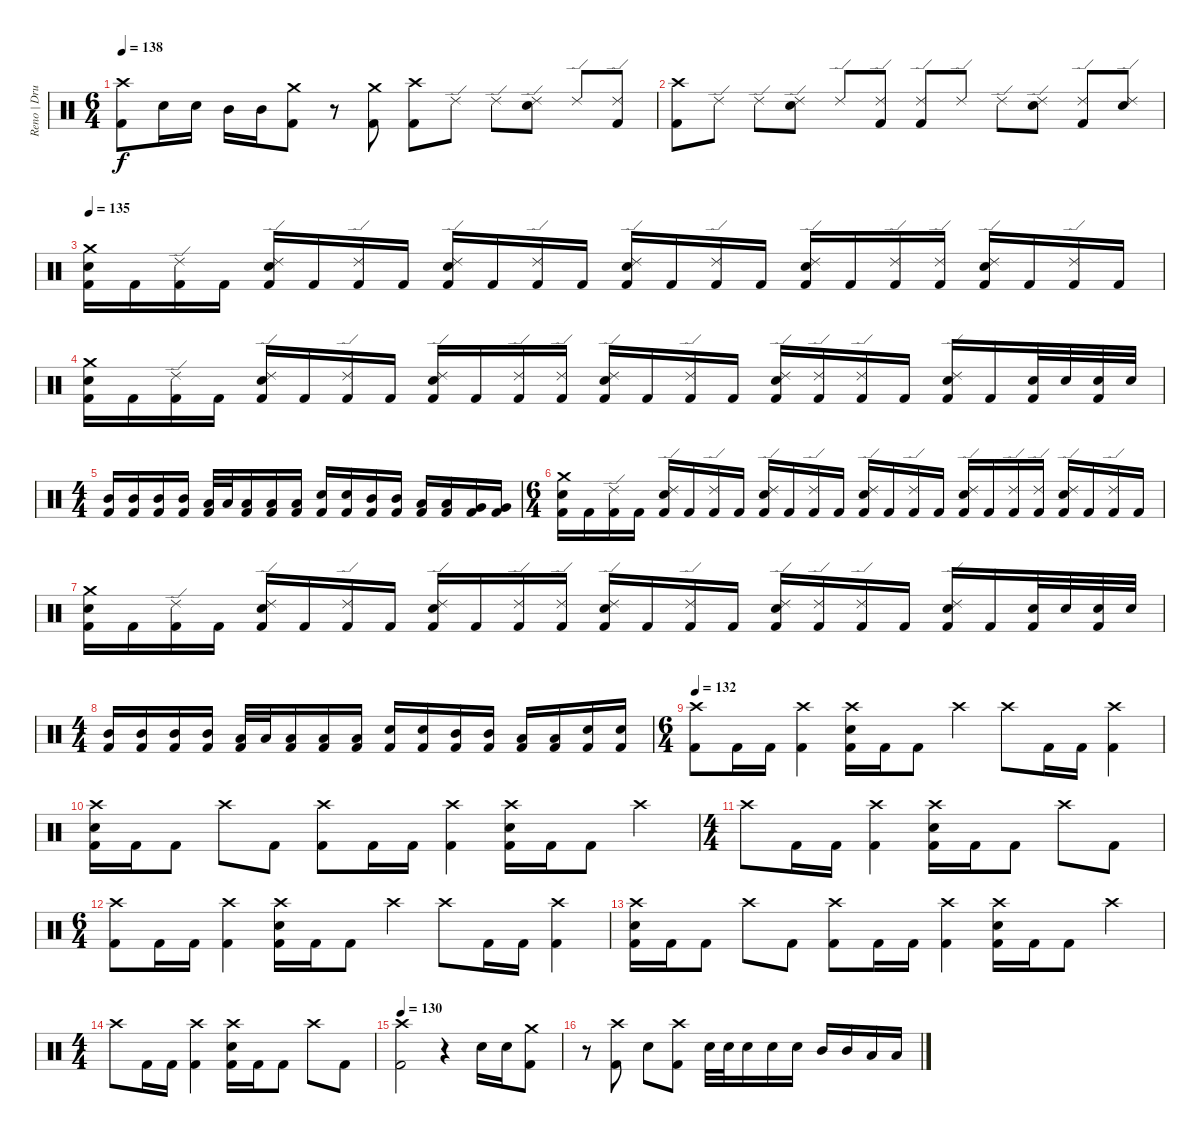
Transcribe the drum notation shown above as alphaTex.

\track ("Reno | Drums" "Reno | Dru") {instrument percussion}
\staff {score}
\articulation defaults
\ts (6 4)
\tempo 138
\clef neutral
\ks c
("Crash high (hit)" "Kick (hit) 2").8{dy f} "Electric Snare (hit)".16 "Electric Snare (hit)".16 "Mid Tom (hit)".16 "Mid Tom (hit)".16 ("Crash medium (hit)" "Kick (hit) 2").8 r.8 ("Crash medium (hit)" "Kick (hit) 2").8 ("Crash high (hit)" "Kick (hit) 2").8 "Ride (edge) 2".8 "Ride (edge) 2".8 ("Ride (edge) 2" "Electric Snare (hit)").8 "Ride (edge) 2".8 ("Ride (edge) 2" "Kick (hit) 2").8 |
("Crash high (hit)" "Kick (hit) 2").8 "Ride (edge) 2".8 "Ride (edge) 2".8 ("Ride (edge) 2" "Electric Snare (hit)").8 "Ride (edge) 2".8 ("Ride (edge) 2" "Kick (hit) 2").8 ("Ride (edge) 2" "Kick (hit) 2").8 "Ride (edge) 2".8 "Ride (edge) 2".8 ("Ride (edge) 2" "Electric Snare (hit)").8 ("Ride (edge) 2" "Kick (hit) 2").8 ("Ride (edge) 2" "Electric Snare (hit)").8 |
\tempo 135
("Crash medium (hit)" "Electric Snare (hit)" "Kick (hit) 2").16 "Kick (hit) 2".16 ("Ride (edge) 2" "Kick (hit) 2").16 "Kick (hit) 2".16 ("Ride (edge) 2" "Electric Snare (hit)" "Kick (hit) 2").16 "Kick (hit) 2".16 ("Ride (edge) 2" "Kick (hit) 2").16 "Kick (hit) 2".16 ("Ride (edge) 2" "Electric Snare (hit)" "Kick (hit) 2").16 "Kick (hit) 2".16 ("Ride (edge) 2" "Kick (hit) 2").16 "Kick (hit) 2".16 ("Ride (edge) 2" "Electric Snare (hit)" "Kick (hit) 2").16 "Kick (hit) 2".16 ("Ride (edge) 2" "Kick (hit) 2").16 "Kick (hit) 2".16 ("Ride (edge) 2" "Electric Snare (hit)" "Kick (hit) 2").16 "Kick (hit) 2".16 ("Ride (edge) 2" "Kick (hit) 2").16 ("Ride (edge) 2" "Kick (hit) 2").16 ("Ride (edge) 2" "Electric Snare (hit)" "Kick (hit) 2").16 "Kick (hit) 2".16 ("Ride (edge) 2" "Kick (hit) 2").16 "Kick (hit) 2".16 |
("Crash medium (hit)" "Electric Snare (hit)" "Kick (hit) 2").16 "Kick (hit) 2".16 ("Ride (edge) 2" "Kick (hit) 2").16 "Kick (hit) 2".16 ("Ride (edge) 2" "Electric Snare (hit)" "Kick (hit) 2").16 "Kick (hit) 2".16 ("Ride (edge) 2" "Kick (hit) 2").16 "Kick (hit) 2".16 ("Ride (edge) 2" "Electric Snare (hit)" "Kick (hit) 2").16 "Kick (hit) 2".16 ("Ride (edge) 2" "Kick (hit) 2").16 ("Ride (edge) 2" "Kick (hit) 2").16 ("Ride (edge) 2" "Electric Snare (hit)" "Kick (hit) 2").16 "Kick (hit) 2".16 ("Ride (edge) 2" "Kick (hit) 2").16 "Kick (hit) 2".16 ("Ride (edge) 2" "Electric Snare (hit)" "Kick (hit) 2").16 ("Ride (edge) 2" "Kick (hit) 2").16 ("Ride (edge) 2" "Kick (hit) 2").16 "Kick (hit) 2".16 ("Ride (edge) 2" "Electric Snare (hit)" "Kick (hit) 2").16 "Kick (hit) 2".16 ("Electric Snare (hit)" "Kick (hit) 2").32 "Electric Snare (hit)".32 ("Electric Snare (hit)" "Kick (hit) 2").32 "Electric Snare (hit)".32 |
\ts (4 4)
("Mid Tom (hit)" "Kick (hit) 2").16 ("Mid Tom (hit)" "Kick (hit) 2").16 ("Mid Tom (hit)" "Kick (hit) 2").16 ("Mid Tom (hit)" "Kick (hit) 2").16 ("Low Tom (hit)" "Kick (hit) 2").32 "Low Tom (hit)".32 ("Low Tom (hit)" "Kick (hit) 2").16 ("Low Tom (hit)" "Kick (hit) 2").16 ("Low Tom (hit)" "Kick (hit) 2").16 ("Electric Snare (hit)" "Kick (hit) 2").16 ("Electric Snare (hit)" "Kick (hit) 2").16 ("Mid Tom (hit)" "Kick (hit) 2").16 ("Mid Tom (hit)" "Kick (hit) 2").16 ("Low Tom (hit)" "Kick (hit) 2").16 ("Low Tom (hit)" "Kick (hit) 2").16 ("Very Low Tom (hit)" "Kick (hit) 2").16 ("Very Low Tom (hit)" "Kick (hit) 2").16 |
\ts (6 4)
("Crash medium (hit)" "Electric Snare (hit)" "Kick (hit) 2").16 "Kick (hit) 2".16 ("Ride (edge) 2" "Kick (hit) 2").16 "Kick (hit) 2".16 ("Ride (edge) 2" "Electric Snare (hit)" "Kick (hit) 2").16 "Kick (hit) 2".16 ("Ride (edge) 2" "Kick (hit) 2").16 "Kick (hit) 2".16 ("Ride (edge) 2" "Electric Snare (hit)" "Kick (hit) 2").16 "Kick (hit) 2".16 ("Ride (edge) 2" "Kick (hit) 2").16 "Kick (hit) 2".16 ("Ride (edge) 2" "Electric Snare (hit)" "Kick (hit) 2").16 "Kick (hit) 2".16 ("Ride (edge) 2" "Kick (hit) 2").16 "Kick (hit) 2".16 ("Ride (edge) 2" "Electric Snare (hit)" "Kick (hit) 2").16 "Kick (hit) 2".16 ("Ride (edge) 2" "Kick (hit) 2").16 ("Ride (edge) 2" "Kick (hit) 2").16 ("Ride (edge) 2" "Electric Snare (hit)" "Kick (hit) 2").16 "Kick (hit) 2".16 ("Ride (edge) 2" "Kick (hit) 2").16 "Kick (hit) 2".16 |
("Crash medium (hit)" "Electric Snare (hit)" "Kick (hit) 2").16 "Kick (hit) 2".16 ("Ride (edge) 2" "Kick (hit) 2").16 "Kick (hit) 2".16 ("Ride (edge) 2" "Electric Snare (hit)" "Kick (hit) 2").16 "Kick (hit) 2".16 ("Ride (edge) 2" "Kick (hit) 2").16 "Kick (hit) 2".16 ("Ride (edge) 2" "Electric Snare (hit)" "Kick (hit) 2").16 "Kick (hit) 2".16 ("Ride (edge) 2" "Kick (hit) 2").16 ("Ride (edge) 2" "Kick (hit) 2").16 ("Ride (edge) 2" "Electric Snare (hit)" "Kick (hit) 2").16 "Kick (hit) 2".16 ("Ride (edge) 2" "Kick (hit) 2").16 "Kick (hit) 2".16 ("Ride (edge) 2" "Electric Snare (hit)" "Kick (hit) 2").16 ("Ride (edge) 2" "Kick (hit) 2").16 ("Ride (edge) 2" "Kick (hit) 2").16 "Kick (hit) 2".16 ("Ride (edge) 2" "Electric Snare (hit)" "Kick (hit) 2").16 "Kick (hit) 2".16 ("Electric Snare (hit)" "Kick (hit) 2").32 "Electric Snare (hit)".32 ("Electric Snare (hit)" "Kick (hit) 2").32 "Electric Snare (hit)".32 |
\ts (4 4)
("Mid Tom (hit)" "Kick (hit) 2").16 ("Mid Tom (hit)" "Kick (hit) 2").16 ("Mid Tom (hit)" "Kick (hit) 2").16 ("Mid Tom (hit)" "Kick (hit) 2").16 ("Low Tom (hit)" "Kick (hit) 2").32 "Low Tom (hit)".32 ("Low Tom (hit)" "Kick (hit) 2").16 ("Low Tom (hit)" "Kick (hit) 2").16 ("Low Tom (hit)" "Kick (hit) 2").16 ("Electric Snare (hit)" "Kick (hit) 2").16 ("Electric Snare (hit)" "Kick (hit) 2").16 ("Mid Tom (hit)" "Kick (hit) 2").16 ("Mid Tom (hit)" "Kick (hit) 2").16 ("Low Tom (hit)" "Kick (hit) 2").16 ("Low Tom (hit)" "Kick (hit) 2").16 ("Electric Snare (hit)" "Kick (hit) 2").16 ("Electric Snare (hit)" "Kick (hit) 2").16 |
\ts (6 4)
\tempo 132
("Crash high (hit)" "Kick (hit) 2").8 "Kick (hit) 2".16 "Kick (hit) 2".16 ("Crash high (hit)" "Kick (hit) 2").4 ("Crash high (hit)" "Electric Snare (hit)" "Kick (hit) 2").16 "Kick (hit) 2".16 "Kick (hit) 2".8 "Crash high (hit)".4 "Crash high (hit)".8 "Kick (hit) 2".16 "Kick (hit) 2".16 ("Crash high (hit)" "Kick (hit) 2").4 |
("Crash high (hit)" "Electric Snare (hit)" "Kick (hit) 2").16 "Kick (hit) 2".16 "Kick (hit) 2".8 "Crash high (hit)".8 "Kick (hit) 2".8 ("Crash high (hit)" "Kick (hit) 2").8 "Kick (hit) 2".16 "Kick (hit) 2".16 ("Crash high (hit)" "Kick (hit) 2").4 ("Crash high (hit)" "Electric Snare (hit)" "Kick (hit) 2").16 "Kick (hit) 2".16 "Kick (hit) 2".8 "Crash high (hit)".4 |
\ts (4 4)
"Crash high (hit)".8 "Kick (hit) 2".16 "Kick (hit) 2".16 ("Crash high (hit)" "Kick (hit) 2").4 ("Crash high (hit)" "Electric Snare (hit)" "Kick (hit) 2").16 "Kick (hit) 2".16 "Kick (hit) 2".8 "Crash high (hit)".8 "Kick (hit) 2".8 |
\ts (6 4)
("Crash high (hit)" "Kick (hit) 2").8 "Kick (hit) 2".16 "Kick (hit) 2".16 ("Crash high (hit)" "Kick (hit) 2").4 ("Crash high (hit)" "Electric Snare (hit)" "Kick (hit) 2").16 "Kick (hit) 2".16 "Kick (hit) 2".8 "Crash high (hit)".4 "Crash high (hit)".8 "Kick (hit) 2".16 "Kick (hit) 2".16 ("Crash high (hit)" "Kick (hit) 2").4 |
("Crash high (hit)" "Electric Snare (hit)" "Kick (hit) 2").16 "Kick (hit) 2".16 "Kick (hit) 2".8 "Crash high (hit)".8 "Kick (hit) 2".8 ("Crash high (hit)" "Kick (hit) 2").8 "Kick (hit) 2".16 "Kick (hit) 2".16 ("Crash high (hit)" "Kick (hit) 2").4 ("Crash high (hit)" "Electric Snare (hit)" "Kick (hit) 2").16 "Kick (hit) 2".16 "Kick (hit) 2".8 "Crash high (hit)".4 |
\ts (4 4)
"Crash high (hit)".8 "Kick (hit) 2".16 "Kick (hit) 2".16 ("Crash high (hit)" "Kick (hit) 2").4 ("Crash high (hit)" "Electric Snare (hit)" "Kick (hit) 2").16 "Kick (hit) 2".16 "Kick (hit) 2".8 "Crash high (hit)".8 "Kick (hit) 2".8 |
\tempo 130
("Crash high (hit)" "Kick (hit) 2").2 r.4 "Electric Snare (hit)".16 "Electric Snare (hit)".16 ("Crash medium (hit)" "Kick (hit) 2").8 |
r.8 ("Crash high (hit)" "Kick (hit) 2").8 "Electric Snare (hit)".8 ("Crash high (hit)" "Kick (hit) 2").8 "Electric Snare (hit)".32 "Electric Snare (hit)".32 "Electric Snare (hit)".16 "Electric Snare (hit)".16 "Electric Snare (hit)".16 "Mid Tom (hit)".16 "Mid Tom (hit)".16 "Low Tom (hit)".16 "Low Tom (hit)".16
